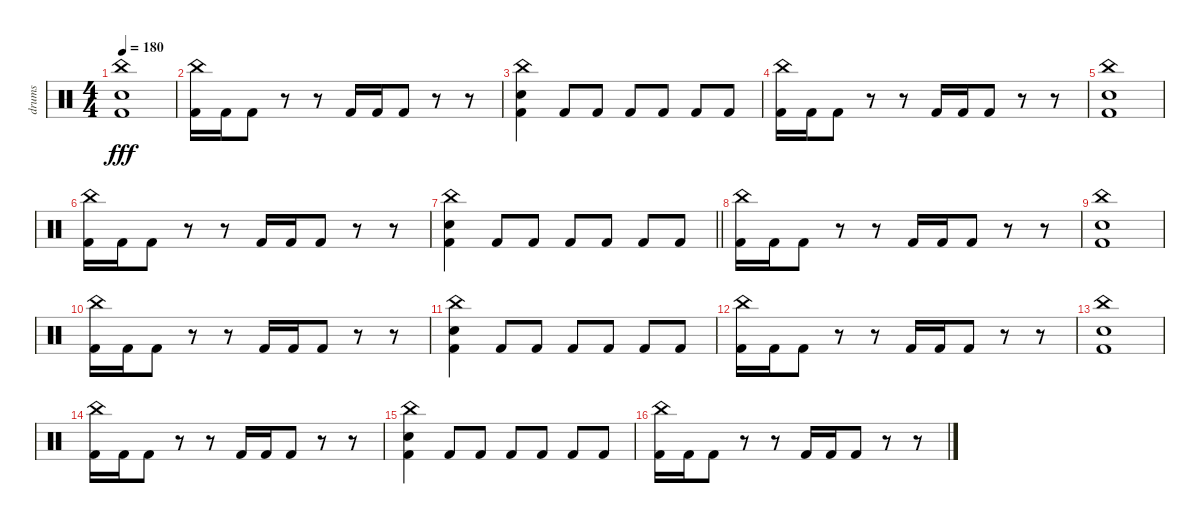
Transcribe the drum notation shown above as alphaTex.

\track ("drums" "drums") {instrument percussion}
\staff {score}
\articulation defaults
\ts (4 4)
\tempo 180
\clef neutral
\ks c
("China (hit)" "Electric Snare (hit)" "Kick (hit) 2").1{dy fff} |
("China (hit)" "Kick (hit) 2").16 "Kick (hit) 2".16 "Kick (hit) 2".8 r.8 r.8 "Kick (hit) 2".16 "Kick (hit) 2".16 "Kick (hit) 2".8 r.8 r.8 |
("China (hit)" "Electric Snare (hit)" "Kick (hit) 2").4 "Kick (hit) 2".8 "Kick (hit) 2".8 "Kick (hit) 2".8 "Kick (hit) 2".8 "Kick (hit) 2".8 "Kick (hit) 2".8 |
("China (hit)" "Kick (hit) 2").16 "Kick (hit) 2".16 "Kick (hit) 2".8 r.8 r.8 "Kick (hit) 2".16 "Kick (hit) 2".16 "Kick (hit) 2".8 r.8 r.8 |
("China (hit)" "Electric Snare (hit)" "Kick (hit) 2").1 |
("China (hit)" "Kick (hit) 2").16 "Kick (hit) 2".16 "Kick (hit) 2".8 r.8 r.8 "Kick (hit) 2".16 "Kick (hit) 2".16 "Kick (hit) 2".8 r.8 r.8 |
\barLineRight lightlight
("China (hit)" "Electric Snare (hit)" "Kick (hit) 2").4 "Kick (hit) 2".8 "Kick (hit) 2".8 "Kick (hit) 2".8 "Kick (hit) 2".8 "Kick (hit) 2".8 "Kick (hit) 2".8 |
("China (hit)" "Kick (hit) 2").16 "Kick (hit) 2".16 "Kick (hit) 2".8 r.8 r.8 "Kick (hit) 2".16 "Kick (hit) 2".16 "Kick (hit) 2".8 r.8 r.8 |
("China (hit)" "Electric Snare (hit)" "Kick (hit) 2").1 |
("China (hit)" "Kick (hit) 2").16 "Kick (hit) 2".16 "Kick (hit) 2".8 r.8 r.8 "Kick (hit) 2".16 "Kick (hit) 2".16 "Kick (hit) 2".8 r.8 r.8 |
("China (hit)" "Electric Snare (hit)" "Kick (hit) 2").4 "Kick (hit) 2".8 "Kick (hit) 2".8 "Kick (hit) 2".8 "Kick (hit) 2".8 "Kick (hit) 2".8 "Kick (hit) 2".8 |
("China (hit)" "Kick (hit) 2").16 "Kick (hit) 2".16 "Kick (hit) 2".8 r.8 r.8 "Kick (hit) 2".16 "Kick (hit) 2".16 "Kick (hit) 2".8 r.8 r.8 |
("China (hit)" "Electric Snare (hit)" "Kick (hit) 2").1 |
("China (hit)" "Kick (hit) 2").16 "Kick (hit) 2".16 "Kick (hit) 2".8 r.8 r.8 "Kick (hit) 2".16 "Kick (hit) 2".16 "Kick (hit) 2".8 r.8 r.8 |
("China (hit)" "Electric Snare (hit)" "Kick (hit) 2").4 "Kick (hit) 2".8 "Kick (hit) 2".8 "Kick (hit) 2".8 "Kick (hit) 2".8 "Kick (hit) 2".8 "Kick (hit) 2".8 |
("China (hit)" "Kick (hit) 2").16 "Kick (hit) 2".16 "Kick (hit) 2".8 r.8 r.8 "Kick (hit) 2".16 "Kick (hit) 2".16 "Kick (hit) 2".8 r.8 r.8
